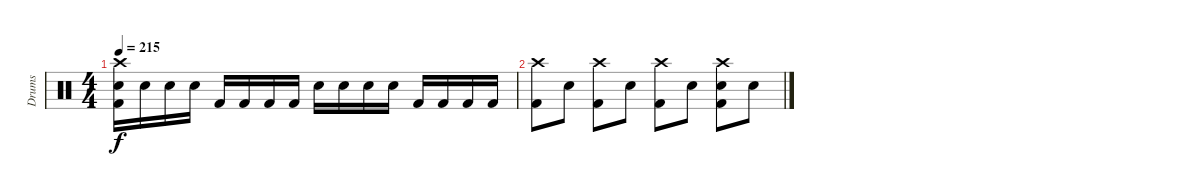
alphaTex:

\track ("Drums" "Drums") {instrument percussion}
\staff {score}
\articulation defaults
\ts (4 4)
\tempo 215
\clef neutral
\ks c
("Crash high (hit)" "Electric Snare (hit)" "Kick (hit) 2").16{dy f} "Electric Snare (hit)".16 "Electric Snare (hit)".16 "Electric Snare (hit)".16 "Kick (hit) 2".16 "Kick (hit) 2".16 "Kick (hit) 2".16 "Kick (hit) 2".16 "Electric Snare (hit)".16 "Electric Snare (hit)".16 "Electric Snare (hit)".16 "Electric Snare (hit)".16 "Kick (hit) 2".16 "Kick (hit) 2".16 "Kick (hit) 2".16 "Kick (hit) 2".16 |
("Crash high (hit)" "Kick (hit) 2").8 "Electric Snare (hit)".8 ("Crash high (hit)" "Kick (hit) 2").8 "Electric Snare (hit)".8 ("Crash high (hit)" "Kick (hit) 2").8 "Electric Snare (hit)".8 ("Crash high (hit)" "Electric Snare (hit)" "Kick (hit) 2").8 "Electric Snare (hit)".8
